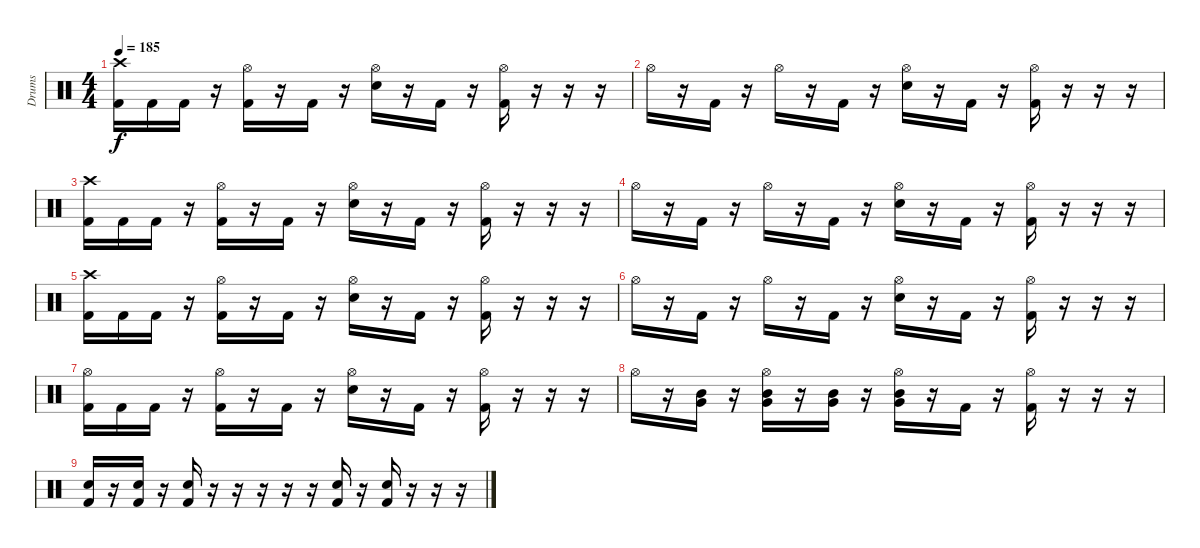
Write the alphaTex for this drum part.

\track ("Drums" "Drums") {instrument percussion}
\staff {score}
\articulation defaults
\ts (4 4)
\tempo 185
\clef neutral
\ks c
("Kick (hit) 2" "Crash high (hit)").16{dy f} "Kick (hit) 2".16 "Kick (hit) 2".16 r.16 ("Kick (hit) 2" "Hi-Hat (open)").16 r.16 "Kick (hit) 2".16 r.16 ("Electric Snare (hit)" "Hi-Hat (open)").16 r.16 "Kick (hit) 2".16 r.16 ("Kick (hit) 2" "Hi-Hat (open)").16 r.16 r.16 r.16 |
"Hi-Hat (open)".16 r.16 "Kick (hit) 2".16 r.16 "Hi-Hat (open)".16 r.16 "Kick (hit) 2".16 r.16 ("Electric Snare (hit)" "Hi-Hat (open)").16 r.16 "Kick (hit) 2".16 r.16 ("Kick (hit) 2" "Hi-Hat (open)").16 r.16 r.16 r.16 |
("Kick (hit) 2" "Crash high (hit)").16 "Kick (hit) 2".16 "Kick (hit) 2".16 r.16 ("Kick (hit) 2" "Hi-Hat (open)").16 r.16 "Kick (hit) 2".16 r.16 ("Electric Snare (hit)" "Hi-Hat (open)").16 r.16 "Kick (hit) 2".16 r.16 ("Kick (hit) 2" "Hi-Hat (open)").16 r.16 r.16 r.16 |
"Hi-Hat (open)".16 r.16 "Kick (hit) 2".16 r.16 "Hi-Hat (open)".16 r.16 "Kick (hit) 2".16 r.16 ("Electric Snare (hit)" "Hi-Hat (open)").16 r.16 "Kick (hit) 2".16 r.16 ("Kick (hit) 2" "Hi-Hat (open)").16 r.16 r.16 r.16 |
("Kick (hit) 2" "Crash high (hit)").16 "Kick (hit) 2".16 "Kick (hit) 2".16 r.16 ("Kick (hit) 2" "Hi-Hat (open)").16 r.16 "Kick (hit) 2".16 r.16 ("Electric Snare (hit)" "Hi-Hat (open)").16 r.16 "Kick (hit) 2".16 r.16 ("Kick (hit) 2" "Hi-Hat (open)").16 r.16 r.16 r.16 |
"Hi-Hat (open)".16 r.16 "Kick (hit) 2".16 r.16 "Hi-Hat (open)".16 r.16 "Kick (hit) 2".16 r.16 ("Electric Snare (hit)" "Hi-Hat (open)").16 r.16 "Kick (hit) 2".16 r.16 ("Kick (hit) 2" "Hi-Hat (open)").16 r.16 r.16 r.16 |
("Kick (hit) 2" "Hi-Hat (open)").16 "Kick (hit) 2".16 "Kick (hit) 2".16 r.16 ("Kick (hit) 2" "Hi-Hat (open)").16 r.16 "Kick (hit) 2".16 r.16 ("Electric Snare (hit)" "Hi-Hat (open)").16 r.16 "Kick (hit) 2".16 r.16 ("Kick (hit) 2" "Hi-Hat (open)").16 r.16 r.16 r.16 |
"Hi-Hat (open)".16 r.16 ("Mid Tom (hit)" "Very Low Tom (hit)").16 r.16 ("Mid Tom (hit)" "Very Low Tom (hit)" "Hi-Hat (open)").16 r.16 ("Mid Tom (hit)" "Very Low Tom (hit)").16 r.16 ("Mid Tom (hit)" "Very Low Tom (hit)" "Hi-Hat (open)").16 r.16 "Kick (hit) 2".16 r.16 ("Kick (hit) 2" "Hi-Hat (open)").16 r.16 r.16 r.16 |
("Kick (hit) 2" "Electric Snare (hit)").16 r.16 ("Kick (hit) 2" "Electric Snare (hit)").16 r.16 ("Kick (hit) 2" "Electric Snare (hit)").16 r.16 r.16 r.16 r.16 r.16 ("Kick (hit) 2" "Electric Snare (hit)").16 r.16 ("Kick (hit) 2" "Electric Snare (hit)").16 r.16 r.16 r.16
